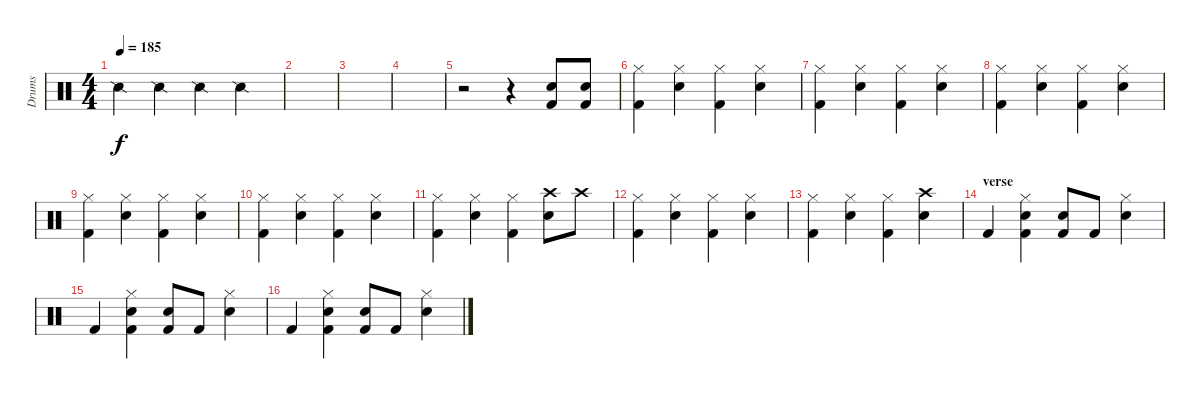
\track ("Drums" "Drums") {instrument percussion}
\staff {score}
\articulation defaults
\ts (4 4)
\tempo 185
\clef neutral
\ks c "Snare (side stick) 2".4{dy f} "Snare (side stick) 2".4 "Snare (side stick) 2".4 "Snare (side stick) 2".4
|
|
|
|
r.2 r.4 ("Kick (hit) 2" "Snare (hit) 2").8 ("Kick (hit) 2" "Snare (hit) 2").8 |
("Hi-Hat (closed)" "Kick (hit) 2").4 ("Hi-Hat (closed)" "Snare (hit) 2").4 ("Hi-Hat (closed)" "Kick (hit) 2").4 ("Hi-Hat (closed)" "Snare (hit) 2").4 |
("Hi-Hat (closed)" "Kick (hit) 2").4 ("Hi-Hat (closed)" "Snare (hit) 2").4 ("Hi-Hat (closed)" "Kick (hit) 2").4 ("Hi-Hat (closed)" "Snare (hit) 2").4 |
("Hi-Hat (closed)" "Kick (hit) 2").4 ("Hi-Hat (closed)" "Snare (hit) 2").4 ("Hi-Hat (closed)" "Kick (hit) 2").4 ("Hi-Hat (closed)" "Snare (hit) 2").4 |
("Hi-Hat (closed)" "Kick (hit) 2").4 ("Hi-Hat (closed)" "Snare (hit) 2").4 ("Hi-Hat (closed)" "Kick (hit) 2").4 ("Hi-Hat (closed)" "Snare (hit) 2").4 |
("Hi-Hat (closed)" "Kick (hit) 2").4 ("Hi-Hat (closed)" "Snare (hit) 2").4 ("Hi-Hat (closed)" "Kick (hit) 2").4 ("Hi-Hat (closed)" "Snare (hit) 2").4 |
("Hi-Hat (closed)" "Kick (hit) 2").4 ("Hi-Hat (closed)" "Snare (hit) 2").4 ("Hi-Hat (closed)" "Kick (hit) 2").4 ("Crash high (hit)" "Snare (hit) 2").8 "Crash high (hit)".8 |
("Hi-Hat (closed)" "Kick (hit) 2").4 ("Hi-Hat (closed)" "Snare (hit) 2").4 ("Hi-Hat (closed)" "Kick (hit) 2").4 ("Hi-Hat (closed)" "Snare (hit) 2").4 |
("Hi-Hat (closed)" "Kick (hit) 2").4 ("Hi-Hat (closed)" "Snare (hit) 2").4 ("Hi-Hat (closed)" "Kick (hit) 2").4 ("Crash high (hit)" "Snare (hit) 2").4 |
\section ("" "verse")
"Kick (hit) 2".4 ("Hi-Hat (closed)" "Snare (hit) 2" "Kick (hit) 2").4 ("Snare (hit) 2" "Kick (hit) 2").8 "Kick (hit) 2".8 ("Hi-Hat (closed)" "Snare (hit) 2").4 |
"Kick (hit) 2".4 ("Hi-Hat (closed)" "Snare (hit) 2" "Kick (hit) 2").4 ("Snare (hit) 2" "Kick (hit) 2").8 "Kick (hit) 2".8 ("Hi-Hat (closed)" "Snare (hit) 2").4 |
"Kick (hit) 2".4 ("Hi-Hat (closed)" "Snare (hit) 2" "Kick (hit) 2").4 ("Snare (hit) 2" "Kick (hit) 2").8 "Kick (hit) 2".8 ("Hi-Hat (closed)" "Snare (hit) 2").4
